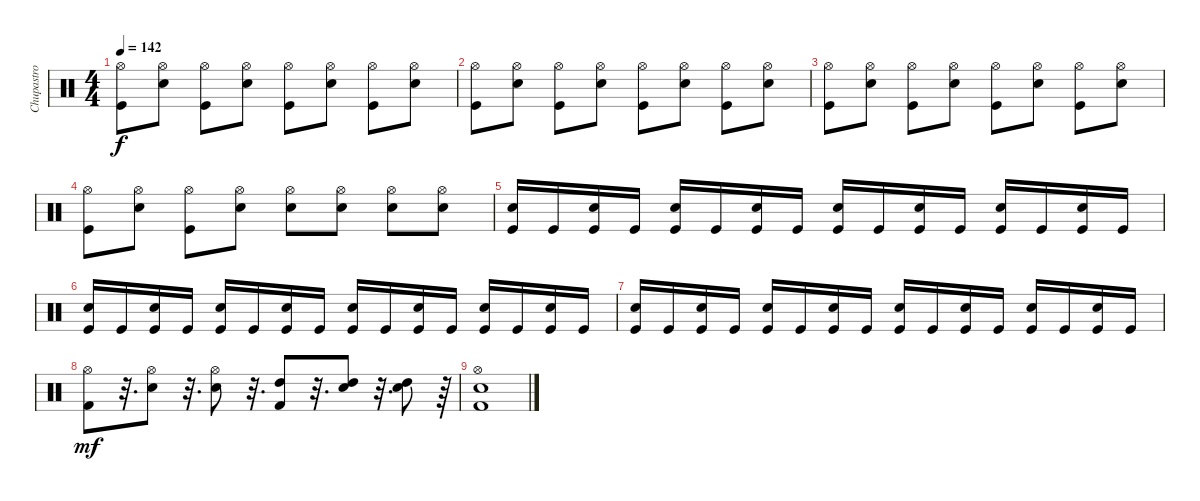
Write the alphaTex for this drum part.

\track ("Chupastro" "Chupastro") {instrument percussion}
\staff {score}
\articulation defaults
\ts (4 4)
\tempo 142
\clef neutral
\ks c
("Hi-Hat (open)" "Kick (hit)").8{dy f} ("Hi-Hat (open)" "Snare (hit) 2").8 ("Hi-Hat (open)" "Kick (hit)").8 ("Hi-Hat (open)" "Snare (hit) 2").8 ("Hi-Hat (open)" "Kick (hit)").8 ("Hi-Hat (open)" "Snare (hit) 2").8 ("Hi-Hat (open)" "Kick (hit)").8 ("Hi-Hat (open)" "Snare (hit) 2").8 |
("Hi-Hat (open)" "Kick (hit)").8 ("Hi-Hat (open)" "Snare (hit) 2").8 ("Hi-Hat (open)" "Kick (hit)").8 ("Hi-Hat (open)" "Snare (hit) 2").8 ("Hi-Hat (open)" "Kick (hit)").8 ("Hi-Hat (open)" "Snare (hit) 2").8 ("Hi-Hat (open)" "Kick (hit)").8 ("Hi-Hat (open)" "Snare (hit) 2").8 |
("Hi-Hat (open)" "Kick (hit)").8 ("Hi-Hat (open)" "Snare (hit) 2").8 ("Hi-Hat (open)" "Kick (hit)").8 ("Hi-Hat (open)" "Snare (hit) 2").8 ("Hi-Hat (open)" "Kick (hit)").8 ("Hi-Hat (open)" "Snare (hit) 2").8 ("Hi-Hat (open)" "Kick (hit)").8 ("Hi-Hat (open)" "Snare (hit) 2").8 |
("Hi-Hat (open)" "Kick (hit)").8 ("Hi-Hat (open)" "Snare (hit) 2").8 ("Hi-Hat (open)" "Kick (hit)").8 ("Hi-Hat (open)" "Snare (hit) 2").8 ("Hi-Hat (open)" "Snare (hit) 2").8 ("Hi-Hat (open)" "Snare (hit) 2").8 ("Hi-Hat (open)" "Snare (hit) 2").8 ("Hi-Hat (open)" "Snare (hit) 2").8 |
("Snare (hit) 2" "Kick (hit)").16 "Kick (hit)".16 ("Snare (hit) 2" "Kick (hit)").16 "Kick (hit)".16 ("Snare (hit) 2" "Kick (hit)").16 "Kick (hit)".16 ("Snare (hit) 2" "Kick (hit)").16 "Kick (hit)".16 ("Snare (hit) 2" "Kick (hit)").16 "Kick (hit)".16 ("Snare (hit) 2" "Kick (hit)").16 "Kick (hit)".16 ("Snare (hit) 2" "Kick (hit)").16 "Kick (hit)".16 ("Snare (hit) 2" "Kick (hit)").16 "Kick (hit)".16 |
("Snare (hit) 2" "Kick (hit)").16 "Kick (hit)".16 ("Snare (hit) 2" "Kick (hit)").16 "Kick (hit)".16 ("Snare (hit) 2" "Kick (hit)").16 "Kick (hit)".16 ("Snare (hit) 2" "Kick (hit)").16 "Kick (hit)".16 ("Snare (hit) 2" "Kick (hit)").16 "Kick (hit)".16 ("Snare (hit) 2" "Kick (hit)").16 "Kick (hit)".16 ("Snare (hit) 2" "Kick (hit)").16 "Kick (hit)".16 ("Snare (hit) 2" "Kick (hit)").16 "Kick (hit)".16 |
("Snare (hit) 2" "Kick (hit)").16 "Kick (hit)".16 ("Snare (hit) 2" "Kick (hit)").16 "Kick (hit)".16 ("Snare (hit) 2" "Kick (hit)").16 "Kick (hit)".16 ("Snare (hit) 2" "Kick (hit)").16 "Kick (hit)".16 ("Snare (hit) 2" "Kick (hit)").16 "Kick (hit)".16 ("Snare (hit) 2" "Kick (hit)").16 "Kick (hit)".16 ("Snare (hit) 2" "Kick (hit)").16 "Kick (hit)".16 ("Snare (hit) 2" "Kick (hit)").16 "Kick (hit)".16 |
("Hi-Hat (open)" "Kick (hit) 2").8{dy mf} r.32{d} ("Hi-Hat (open)" "Snare (hit) 2").8 r.32{d} ("Hi-Hat (open)" "Snare (hit) 2").8 r.32{d} ("High Tom (hit)" "Kick (hit) 2").8 r.32{d} ("High Tom (hit)" "Snare (hit) 2").8 r.32{d} ("High Tom (hit)" "Snare (hit) 2").8 r.64 |
("Hi-Hat (open)" "Kick (hit) 2" "Snare (hit) 2").1
